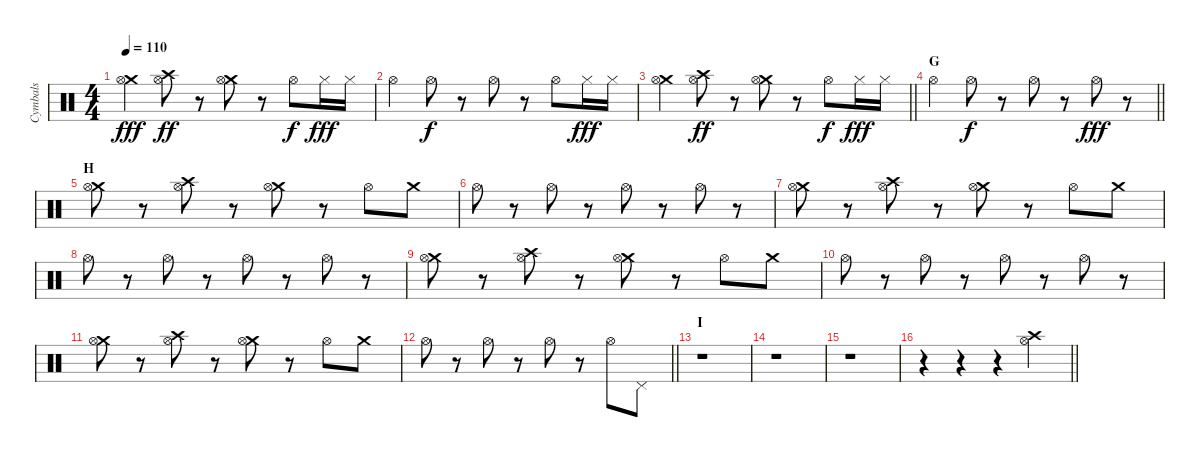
\track ("Cymbals" "Cymbals") {instrument percussion}
\staff {score}
\articulation defaults
\ts (4 4)
\tempo 110
\clef neutral
\ks c
("Crash medium (hit)" "Hi-Hat (open)").4{dy fff} ("Crash high (hit)" "Hi-Hat (open)").8{dy ff} r.8 ("Crash medium (hit)" "Hi-Hat (open)").8 r.8 "Hi-Hat (open)".8{dy f} "Hi-Hat (closed)".16{dy fff} "Hi-Hat (closed)".16 |
"Hi-Hat (open)".4 "Hi-Hat (open)".8{dy f} r.8 "Hi-Hat (open)".8 r.8 "Hi-Hat (open)".8 "Hi-Hat (closed)".16{dy fff} "Hi-Hat (closed)".16 |
\barLineRight lightlight
("Crash medium (hit)" "Hi-Hat (open)").4 ("Crash high (hit)" "Hi-Hat (open)").8{dy ff} r.8 ("Crash medium (hit)" "Hi-Hat (open)").8 r.8 "Hi-Hat (open)".8{dy f} "Hi-Hat (closed)".16{dy fff} "Hi-Hat (closed)".16 |
\section ("" "G")
\barLineRight lightlight "Hi-Hat (open)".4 "Hi-Hat (open)".8{dy f}
r.8 "Hi-Hat (open)".8 r.8 "Hi-Hat (open)".8{dy fff} r.8 |
\section ("" "H")
("Crash medium (hit)" "Hi-Hat (open)").8 r.8 ("Crash high (hit)" "Hi-Hat (open)").8 r.8 ("Crash medium (hit)" "Hi-Hat (open)").8 r.8 "Hi-Hat (open)".8 "Crash medium (hit)".8 |
"Hi-Hat (open)".8 r.8 "Hi-Hat (open)".8 r.8 "Hi-Hat (open)".8 r.8 "Hi-Hat (open)".8 r.8 |
("Crash medium (hit)" "Hi-Hat (open)").8 r.8 ("Crash high (hit)" "Hi-Hat (open)").8 r.8 ("Crash medium (hit)" "Hi-Hat (open)").8 r.8 "Hi-Hat (open)".8 "Crash medium (hit)".8 |
"Hi-Hat (open)".8 r.8 "Hi-Hat (open)".8 r.8 "Hi-Hat (open)".8 r.8 "Hi-Hat (open)".8 r.8 |
("Crash medium (hit)" "Hi-Hat (open)").8 r.8 ("Crash high (hit)" "Hi-Hat (open)").8 r.8 ("Crash medium (hit)" "Hi-Hat (open)").8 r.8 "Hi-Hat (open)".8 "Crash medium (hit)".8 |
"Hi-Hat (open)".8 r.8 "Hi-Hat (open)".8 r.8 "Hi-Hat (open)".8 r.8 "Hi-Hat (open)".8 r.8 |
("Crash medium (hit)" "Hi-Hat (open)").8 r.8 ("Crash high (hit)" "Hi-Hat (open)").8 r.8 ("Crash medium (hit)" "Hi-Hat (open)").8 r.8 "Hi-Hat (open)".8 "Crash medium (hit)".8 |
\barLineRight lightlight "Hi-Hat (open)".8
r.8 "Hi-Hat (open)".8 r.8 "Hi-Hat (open)".8 r.8 "Hi-Hat (open)".8 "Pedal Hi-Hat (hit)".8 |
\section ("" "I")
r.1 |
r.1 |
r.1 |
\barLineRight lightlight
r.4 r.4 r.4 ("Crash high (hit)" "Hi-Hat (open)").4
